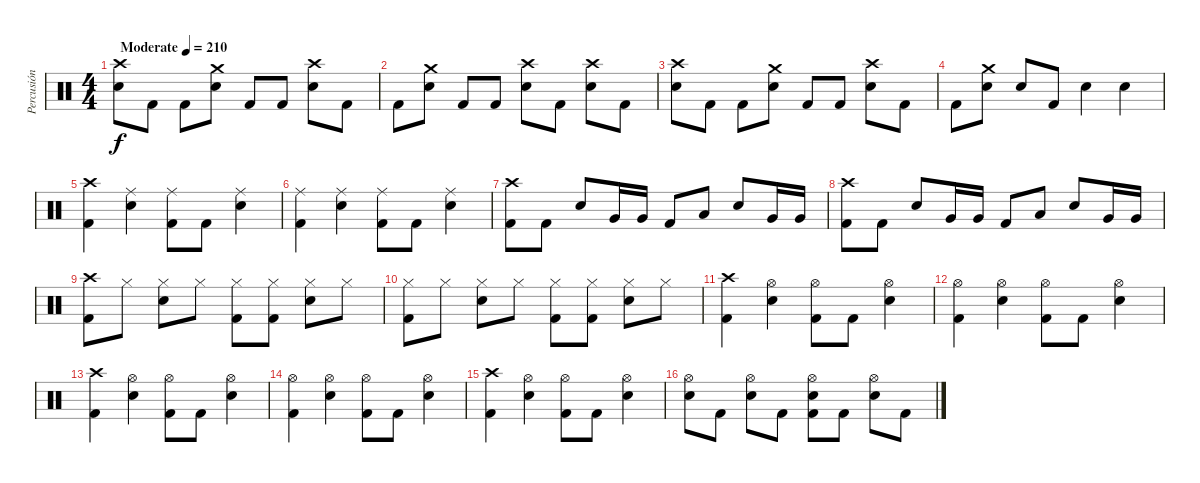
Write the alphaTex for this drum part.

\track ("Percusión" "Percusión") {instrument percussion}
\staff {score}
\articulation defaults
\ts (4 4)
\tempo (210 "Moderate")
\clef neutral
\ks c
("Crash high (hit)" "Electric Snare (hit)").8{dy f} "Kick (hit) 2".8 "Kick (hit) 2".8 ("Crash medium (hit)" "Electric Snare (hit)").8 "Kick (hit) 2".8 "Kick (hit) 2".8 ("Crash high (hit)" "Electric Snare (hit)").8 "Kick (hit) 2".8 |
"Kick (hit) 2".8 ("Crash medium (hit)" "Electric Snare (hit)").8 "Kick (hit) 2".8 "Kick (hit) 2".8 ("Crash high (hit)" "Electric Snare (hit)").8 "Kick (hit) 2".8 ("Crash high (hit)" "Electric Snare (hit)").8 "Kick (hit) 2".8 |
("Crash high (hit)" "Electric Snare (hit)").8 "Kick (hit) 2".8 "Kick (hit) 2".8 ("Crash medium (hit)" "Electric Snare (hit)").8 "Kick (hit) 2".8 "Kick (hit) 2".8 ("Crash high (hit)" "Electric Snare (hit)").8 "Kick (hit) 2".8 |
"Kick (hit) 2".8 ("Crash medium (hit)" "Electric Snare (hit)").8 "Electric Snare (hit)".8 "Kick (hit) 2".8 "Electric Snare (hit)".4 "Electric Snare (hit)".4 |
("Crash high (hit)" "Kick (hit) 2").4 ("Ride (middle)" "Electric Snare (hit)").4 ("Ride (middle)" "Kick (hit) 2").8 "Kick (hit) 2".8 ("Ride (middle)" "Electric Snare (hit)").4 |
("Ride (middle)" "Kick (hit) 2").4 ("Ride (middle)" "Electric Snare (hit)").4 ("Ride (middle)" "Kick (hit) 2").8 "Kick (hit) 2".8 ("Ride (middle)" "Electric Snare (hit)").4 |
("Crash high (hit)" "Kick (hit) 2").8 "Kick (hit) 2".8 "Electric Snare (hit)".8 "Very Low Tom (hit)".16 "Very Low Tom (hit)".16 "Kick (hit) 2".8 "Low Floor Tom (hit)".8 "Electric Snare (hit)".8 "Very Low Tom (hit)".16 "Very Low Tom (hit)".16 |
("Crash high (hit)" "Kick (hit) 2").8 "Kick (hit) 2".8 "Electric Snare (hit)".8 "Very Low Tom (hit)".16 "Very Low Tom (hit)".16 "Kick (hit) 2".8 "Low Floor Tom (hit)".8 "Electric Snare (hit)".8 "Very Low Tom (hit)".16 "Very Low Tom (hit)".16 |
("Crash high (hit)" "Kick (hit) 2").8 "Hi-Hat (closed)".8 ("Hi-Hat (closed)" "Electric Snare (hit)").8 "Hi-Hat (closed)".8 ("Hi-Hat (closed)" "Kick (hit) 2").8 ("Hi-Hat (closed)" "Kick (hit) 2").8 ("Hi-Hat (closed)" "Electric Snare (hit)").8 "Hi-Hat (closed)".8 |
("Hi-Hat (closed)" "Kick (hit) 2").8 "Hi-Hat (closed)".8 ("Hi-Hat (closed)" "Electric Snare (hit)").8 "Hi-Hat (closed)".8 ("Hi-Hat (closed)" "Kick (hit) 2").8 ("Hi-Hat (closed)" "Kick (hit) 2").8 ("Hi-Hat (closed)" "Electric Snare (hit)").8 "Hi-Hat (closed)".8 |
("Crash high (hit)" "Kick (hit) 2").4 ("Hi-Hat (open)" "Electric Snare (hit)").4 ("Hi-Hat (open)" "Kick (hit) 2").8 "Kick (hit) 2".8 ("Hi-Hat (open)" "Electric Snare (hit)").4 |
("Hi-Hat (open)" "Kick (hit) 2").4 ("Hi-Hat (open)" "Electric Snare (hit)").4 ("Hi-Hat (open)" "Kick (hit) 2").8 "Kick (hit) 2".8 ("Hi-Hat (open)" "Electric Snare (hit)").4 |
("Crash high (hit)" "Kick (hit) 2").4 ("Hi-Hat (open)" "Electric Snare (hit)").4 ("Hi-Hat (open)" "Kick (hit) 2").8 "Kick (hit) 2".8 ("Hi-Hat (open)" "Electric Snare (hit)").4 |
("Hi-Hat (open)" "Kick (hit) 2").4 ("Hi-Hat (open)" "Electric Snare (hit)").4 ("Hi-Hat (open)" "Kick (hit) 2").8 "Kick (hit) 2".8 ("Hi-Hat (open)" "Electric Snare (hit)").4 |
("Crash high (hit)" "Kick (hit) 2").4 ("Hi-Hat (open)" "Electric Snare (hit)").4 ("Hi-Hat (open)" "Kick (hit) 2").8 "Kick (hit) 2".8 ("Hi-Hat (open)" "Electric Snare (hit)").4 |
("Hi-Hat (open)" "Electric Snare (hit)").8 "Kick (hit) 2".8 ("Hi-Hat (open)" "Electric Snare (hit)").8 "Kick (hit) 2".8 ("Hi-Hat (open)" "Electric Snare (hit)" "Kick (hit) 2").8 "Kick (hit) 2".8 ("Hi-Hat (open)" "Electric Snare (hit)").8 "Kick (hit) 2".8
